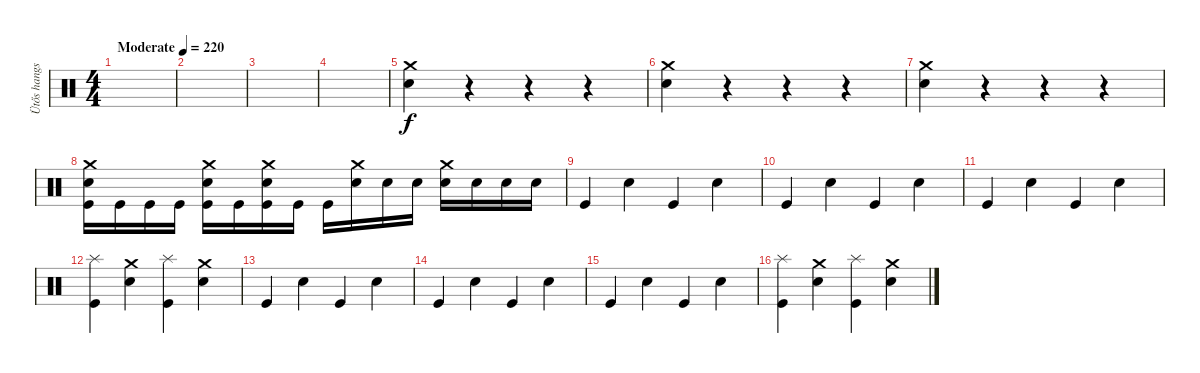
\track ("Ütős hangszer" "Ütős hangs") {instrument percussion}
\staff {score}
\articulation defaults
\ts (4 4)
\tempo (220 "Moderate")
\clef neutral
\ks c
|
|
|
|
("Crash medium (hit)" "Snare (hit) 2").4 r.4 r.4 r.4 |
("Crash medium (hit)" "Snare (hit) 2").4 r.4 r.4 r.4 |
("Crash medium (hit)" "Snare (hit) 2").4 r.4 r.4 r.4 |
("Crash medium (hit)" "Snare (hit) 2" "Kick (hit)").16 "Kick (hit)".16 "Kick (hit)".16 "Kick (hit)".16 ("Crash medium (hit)" "Snare (hit) 2" "Kick (hit)").16 "Kick (hit)".16 ("Crash medium (hit)" "Snare (hit) 2" "Kick (hit)").16 "Kick (hit)".16 "Kick (hit)".16 ("Crash medium (hit)" "Snare (hit) 2").16 "Snare (hit) 2".16 "Snare (hit) 2".16 ("Crash medium (hit)" "Snare (hit) 2").16 "Snare (hit) 2".16 "Snare (hit) 2".16 "Snare (hit) 2".16 |
"Kick (hit)".4 "Snare (hit) 2".4 "Kick (hit)".4 "Snare (hit) 2".4 |
"Kick (hit)".4 "Snare (hit) 2".4 "Kick (hit)".4 "Snare (hit) 2".4 |
"Kick (hit)".4 "Snare (hit) 2".4 "Kick (hit)".4 "Snare (hit) 2".4 |
("Splash (hit)" "Kick (hit)").4 ("Crash medium (hit)" "Snare (hit) 2").4 ("Splash (hit)" "Kick (hit)").4 ("Crash medium (hit)" "Snare (hit) 2").4 |
"Kick (hit)".4 "Snare (hit) 2".4 "Kick (hit)".4 "Snare (hit) 2".4 |
"Kick (hit)".4 "Snare (hit) 2".4 "Kick (hit)".4 "Snare (hit) 2".4 |
"Kick (hit)".4 "Snare (hit) 2".4 "Kick (hit)".4 "Snare (hit) 2".4 |
("Splash (hit)" "Kick (hit)").4 ("Crash medium (hit)" "Snare (hit) 2").4 ("Splash (hit)" "Kick (hit)").4 ("Crash medium (hit)" "Snare (hit) 2").4
